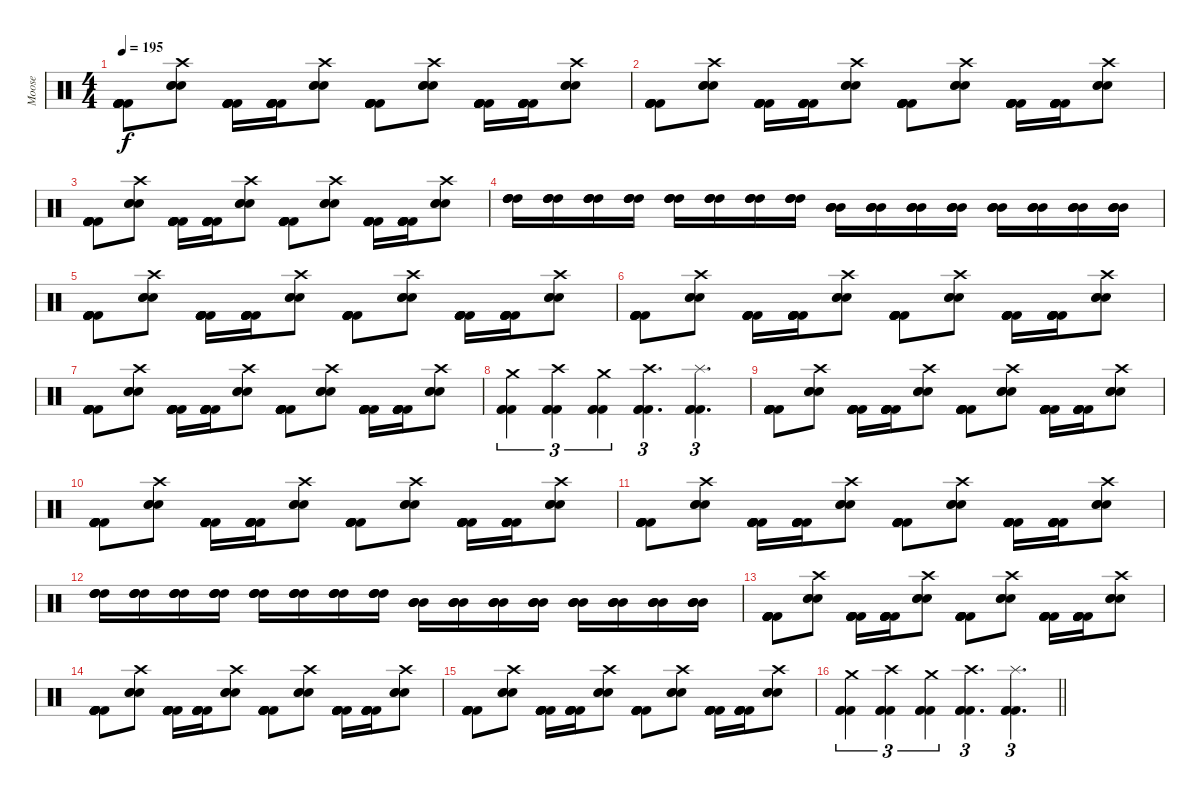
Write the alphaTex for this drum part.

\track ("Moose" "Moose") {instrument percussion}
\staff {score}
\articulation defaults
\ts (4 4)
\tempo 195
\clef neutral
\ks c
("Kick (hit) 2" "Kick (hit) 2" "Kick (hit) 2" "Kick (hit) 2" "Kick (hit) 2" "Kick (hit) 2").8{dy f} ("Electric Snare (hit)" "Electric Snare (hit)" "Electric Snare (hit)" "Crash high (hit)").8 ("Kick (hit) 2" "Kick (hit) 2" "Kick (hit) 2" "Kick (hit) 2" "Kick (hit) 2" "Kick (hit) 2").16 ("Kick (hit) 2" "Kick (hit) 2" "Kick (hit) 2" "Kick (hit) 2" "Kick (hit) 2" "Kick (hit) 2").16 ("Electric Snare (hit)" "Electric Snare (hit)" "Electric Snare (hit)" "Crash high (hit)").8 ("Kick (hit) 2" "Kick (hit) 2" "Kick (hit) 2" "Kick (hit) 2" "Kick (hit) 2" "Kick (hit) 2").8 ("Electric Snare (hit)" "Electric Snare (hit)" "Electric Snare (hit)" "Crash high (hit)").8 ("Kick (hit) 2" "Kick (hit) 2" "Kick (hit) 2" "Kick (hit) 2" "Kick (hit) 2" "Kick (hit) 2").16 ("Kick (hit) 2" "Kick (hit) 2" "Kick (hit) 2" "Kick (hit) 2" "Kick (hit) 2" "Kick (hit) 2").16 ("Electric Snare (hit)" "Electric Snare (hit)" "Electric Snare (hit)" "Crash high (hit)").8 |
("Kick (hit) 2" "Kick (hit) 2" "Kick (hit) 2" "Kick (hit) 2" "Kick (hit) 2" "Kick (hit) 2").8 ("Electric Snare (hit)" "Electric Snare (hit)" "Electric Snare (hit)" "Crash high (hit)").8 ("Kick (hit) 2" "Kick (hit) 2" "Kick (hit) 2" "Kick (hit) 2" "Kick (hit) 2" "Kick (hit) 2").16 ("Kick (hit) 2" "Kick (hit) 2" "Kick (hit) 2" "Kick (hit) 2" "Kick (hit) 2" "Kick (hit) 2").16 ("Electric Snare (hit)" "Electric Snare (hit)" "Electric Snare (hit)" "Crash high (hit)").8 ("Kick (hit) 2" "Kick (hit) 2" "Kick (hit) 2" "Kick (hit) 2" "Kick (hit) 2" "Kick (hit) 2").8 ("Electric Snare (hit)" "Electric Snare (hit)" "Electric Snare (hit)" "Crash high (hit)").8 ("Kick (hit) 2" "Kick (hit) 2" "Kick (hit) 2" "Kick (hit) 2" "Kick (hit) 2" "Kick (hit) 2").16 ("Kick (hit) 2" "Kick (hit) 2" "Kick (hit) 2" "Kick (hit) 2" "Kick (hit) 2" "Kick (hit) 2").16 ("Electric Snare (hit)" "Electric Snare (hit)" "Electric Snare (hit)" "Crash high (hit)").8 |
("Kick (hit) 2" "Kick (hit) 2" "Kick (hit) 2" "Kick (hit) 2" "Kick (hit) 2" "Kick (hit) 2").8 ("Electric Snare (hit)" "Electric Snare (hit)" "Electric Snare (hit)" "Crash high (hit)").8 ("Kick (hit) 2" "Kick (hit) 2" "Kick (hit) 2" "Kick (hit) 2" "Kick (hit) 2" "Kick (hit) 2").16 ("Kick (hit) 2" "Kick (hit) 2" "Kick (hit) 2" "Kick (hit) 2" "Kick (hit) 2" "Kick (hit) 2").16 ("Electric Snare (hit)" "Electric Snare (hit)" "Electric Snare (hit)" "Crash high (hit)").8 ("Kick (hit) 2" "Kick (hit) 2" "Kick (hit) 2" "Kick (hit) 2" "Kick (hit) 2" "Kick (hit) 2").8 ("Electric Snare (hit)" "Electric Snare (hit)" "Electric Snare (hit)" "Crash high (hit)").8 ("Kick (hit) 2" "Kick (hit) 2" "Kick (hit) 2" "Kick (hit) 2" "Kick (hit) 2" "Kick (hit) 2").16 ("Kick (hit) 2" "Kick (hit) 2" "Kick (hit) 2" "Kick (hit) 2" "Kick (hit) 2" "Kick (hit) 2").16 ("Electric Snare (hit)" "Electric Snare (hit)" "Electric Snare (hit)" "Crash high (hit)").8 |
("High Tom (hit)" "High Tom (hit)" "High Tom (hit)" "High Tom (hit)").16 ("High Tom (hit)" "High Tom (hit)" "High Tom (hit)" "High Tom (hit)").16 ("High Tom (hit)" "High Tom (hit)" "High Tom (hit)" "High Tom (hit)").16 ("High Tom (hit)" "High Tom (hit)" "High Tom (hit)" "High Tom (hit)").16 ("High Tom (hit)" "High Tom (hit)" "High Tom (hit)" "High Tom (hit)").16 ("High Tom (hit)" "High Tom (hit)" "High Tom (hit)" "High Tom (hit)").16 ("High Tom (hit)" "High Tom (hit)" "High Tom (hit)" "High Tom (hit)").16 ("High Tom (hit)" "High Tom (hit)" "High Tom (hit)" "High Tom (hit)").16 ("Mid Tom (hit)" "Mid Tom (hit)" "Mid Tom (hit)" "Mid Tom (hit)").16 ("Mid Tom (hit)" "Mid Tom (hit)" "Mid Tom (hit)" "Mid Tom (hit)").16 ("Mid Tom (hit)" "Mid Tom (hit)" "Mid Tom (hit)" "Mid Tom (hit)").16 ("Mid Tom (hit)" "Mid Tom (hit)" "Mid Tom (hit)" "Mid Tom (hit)").16 ("Mid Tom (hit)" "Mid Tom (hit)" "Mid Tom (hit)" "Mid Tom (hit)").16 ("Mid Tom (hit)" "Mid Tom (hit)" "Mid Tom (hit)" "Mid Tom (hit)").16 ("Mid Tom (hit)" "Mid Tom (hit)" "Mid Tom (hit)" "Mid Tom (hit)").16 ("Mid Tom (hit)" "Mid Tom (hit)" "Mid Tom (hit)" "Mid Tom (hit)").16 |
("Kick (hit) 2" "Kick (hit) 2" "Kick (hit) 2" "Kick (hit) 2" "Kick (hit) 2" "Kick (hit) 2").8 ("Electric Snare (hit)" "Electric Snare (hit)" "Electric Snare (hit)" "Crash high (hit)").8 ("Kick (hit) 2" "Kick (hit) 2" "Kick (hit) 2" "Kick (hit) 2" "Kick (hit) 2" "Kick (hit) 2").16 ("Kick (hit) 2" "Kick (hit) 2" "Kick (hit) 2" "Kick (hit) 2" "Kick (hit) 2" "Kick (hit) 2").16 ("Electric Snare (hit)" "Electric Snare (hit)" "Electric Snare (hit)" "Crash high (hit)").8 ("Kick (hit) 2" "Kick (hit) 2" "Kick (hit) 2" "Kick (hit) 2" "Kick (hit) 2" "Kick (hit) 2").8 ("Electric Snare (hit)" "Electric Snare (hit)" "Electric Snare (hit)" "Crash high (hit)").8 ("Kick (hit) 2" "Kick (hit) 2" "Kick (hit) 2" "Kick (hit) 2" "Kick (hit) 2" "Kick (hit) 2").16 ("Kick (hit) 2" "Kick (hit) 2" "Kick (hit) 2" "Kick (hit) 2" "Kick (hit) 2" "Kick (hit) 2").16 ("Electric Snare (hit)" "Electric Snare (hit)" "Electric Snare (hit)" "Crash high (hit)").8 |
("Kick (hit) 2" "Kick (hit) 2" "Kick (hit) 2" "Kick (hit) 2" "Kick (hit) 2" "Kick (hit) 2").8 ("Electric Snare (hit)" "Electric Snare (hit)" "Electric Snare (hit)" "Crash high (hit)").8 ("Kick (hit) 2" "Kick (hit) 2" "Kick (hit) 2" "Kick (hit) 2" "Kick (hit) 2" "Kick (hit) 2").16 ("Kick (hit) 2" "Kick (hit) 2" "Kick (hit) 2" "Kick (hit) 2" "Kick (hit) 2" "Kick (hit) 2").16 ("Electric Snare (hit)" "Electric Snare (hit)" "Electric Snare (hit)" "Crash high (hit)").8 ("Kick (hit) 2" "Kick (hit) 2" "Kick (hit) 2" "Kick (hit) 2" "Kick (hit) 2" "Kick (hit) 2").8 ("Electric Snare (hit)" "Electric Snare (hit)" "Electric Snare (hit)" "Crash high (hit)").8 ("Kick (hit) 2" "Kick (hit) 2" "Kick (hit) 2" "Kick (hit) 2" "Kick (hit) 2" "Kick (hit) 2").16 ("Kick (hit) 2" "Kick (hit) 2" "Kick (hit) 2" "Kick (hit) 2" "Kick (hit) 2" "Kick (hit) 2").16 ("Electric Snare (hit)" "Electric Snare (hit)" "Electric Snare (hit)" "Crash high (hit)").8 |
("Kick (hit) 2" "Kick (hit) 2" "Kick (hit) 2" "Kick (hit) 2" "Kick (hit) 2" "Kick (hit) 2").8 ("Electric Snare (hit)" "Electric Snare (hit)" "Electric Snare (hit)" "Crash high (hit)").8 ("Kick (hit) 2" "Kick (hit) 2" "Kick (hit) 2" "Kick (hit) 2" "Kick (hit) 2" "Kick (hit) 2").16 ("Kick (hit) 2" "Kick (hit) 2" "Kick (hit) 2" "Kick (hit) 2" "Kick (hit) 2" "Kick (hit) 2").16 ("Electric Snare (hit)" "Electric Snare (hit)" "Electric Snare (hit)" "Crash high (hit)").8 ("Kick (hit) 2" "Kick (hit) 2" "Kick (hit) 2" "Kick (hit) 2" "Kick (hit) 2" "Kick (hit) 2").8 ("Electric Snare (hit)" "Electric Snare (hit)" "Electric Snare (hit)" "Crash high (hit)").8 ("Kick (hit) 2" "Kick (hit) 2" "Kick (hit) 2" "Kick (hit) 2" "Kick (hit) 2" "Kick (hit) 2").16 ("Kick (hit) 2" "Kick (hit) 2" "Kick (hit) 2" "Kick (hit) 2" "Kick (hit) 2" "Kick (hit) 2").16 ("Electric Snare (hit)" "Electric Snare (hit)" "Electric Snare (hit)" "Crash high (hit)").8 |
("Kick (hit) 2" "Kick (hit) 2" "Kick (hit) 2" "Crash medium (hit)").4{tu (3 2)} ("Kick (hit) 2" "Kick (hit) 2" "Kick (hit) 2" "Crash high (hit)").4{tu (3 2)} ("Kick (hit) 2" "Kick (hit) 2" "Kick (hit) 2" "Crash medium (hit)").4{tu (3 2)} ("Kick (hit) 2" "Kick (hit) 2" "Kick (hit) 2" "Crash high (hit)").4{d tu (3 2)} ("Kick (hit) 2" "Kick (hit) 2" "Kick (hit) 2" "Splash (hit)").4{d tu (3 2)} |
("Kick (hit) 2" "Kick (hit) 2" "Kick (hit) 2" "Kick (hit) 2" "Kick (hit) 2" "Kick (hit) 2").8 ("Electric Snare (hit)" "Electric Snare (hit)" "Electric Snare (hit)" "Crash high (hit)").8 ("Kick (hit) 2" "Kick (hit) 2" "Kick (hit) 2" "Kick (hit) 2" "Kick (hit) 2" "Kick (hit) 2").16 ("Kick (hit) 2" "Kick (hit) 2" "Kick (hit) 2" "Kick (hit) 2" "Kick (hit) 2" "Kick (hit) 2").16 ("Electric Snare (hit)" "Electric Snare (hit)" "Electric Snare (hit)" "Crash high (hit)").8 ("Kick (hit) 2" "Kick (hit) 2" "Kick (hit) 2" "Kick (hit) 2" "Kick (hit) 2" "Kick (hit) 2").8 ("Electric Snare (hit)" "Electric Snare (hit)" "Electric Snare (hit)" "Crash high (hit)").8 ("Kick (hit) 2" "Kick (hit) 2" "Kick (hit) 2" "Kick (hit) 2" "Kick (hit) 2" "Kick (hit) 2").16 ("Kick (hit) 2" "Kick (hit) 2" "Kick (hit) 2" "Kick (hit) 2" "Kick (hit) 2" "Kick (hit) 2").16 ("Electric Snare (hit)" "Electric Snare (hit)" "Electric Snare (hit)" "Crash high (hit)").8 |
("Kick (hit) 2" "Kick (hit) 2" "Kick (hit) 2" "Kick (hit) 2" "Kick (hit) 2" "Kick (hit) 2").8 ("Electric Snare (hit)" "Electric Snare (hit)" "Electric Snare (hit)" "Crash high (hit)").8 ("Kick (hit) 2" "Kick (hit) 2" "Kick (hit) 2" "Kick (hit) 2" "Kick (hit) 2" "Kick (hit) 2").16 ("Kick (hit) 2" "Kick (hit) 2" "Kick (hit) 2" "Kick (hit) 2" "Kick (hit) 2" "Kick (hit) 2").16 ("Electric Snare (hit)" "Electric Snare (hit)" "Electric Snare (hit)" "Crash high (hit)").8 ("Kick (hit) 2" "Kick (hit) 2" "Kick (hit) 2" "Kick (hit) 2" "Kick (hit) 2" "Kick (hit) 2").8 ("Electric Snare (hit)" "Electric Snare (hit)" "Electric Snare (hit)" "Crash high (hit)").8 ("Kick (hit) 2" "Kick (hit) 2" "Kick (hit) 2" "Kick (hit) 2" "Kick (hit) 2" "Kick (hit) 2").16 ("Kick (hit) 2" "Kick (hit) 2" "Kick (hit) 2" "Kick (hit) 2" "Kick (hit) 2" "Kick (hit) 2").16 ("Electric Snare (hit)" "Electric Snare (hit)" "Electric Snare (hit)" "Crash high (hit)").8 |
("Kick (hit) 2" "Kick (hit) 2" "Kick (hit) 2" "Kick (hit) 2" "Kick (hit) 2" "Kick (hit) 2").8 ("Electric Snare (hit)" "Electric Snare (hit)" "Electric Snare (hit)" "Crash high (hit)").8 ("Kick (hit) 2" "Kick (hit) 2" "Kick (hit) 2" "Kick (hit) 2" "Kick (hit) 2" "Kick (hit) 2").16 ("Kick (hit) 2" "Kick (hit) 2" "Kick (hit) 2" "Kick (hit) 2" "Kick (hit) 2" "Kick (hit) 2").16 ("Electric Snare (hit)" "Electric Snare (hit)" "Electric Snare (hit)" "Crash high (hit)").8 ("Kick (hit) 2" "Kick (hit) 2" "Kick (hit) 2" "Kick (hit) 2" "Kick (hit) 2" "Kick (hit) 2").8 ("Electric Snare (hit)" "Electric Snare (hit)" "Electric Snare (hit)" "Crash high (hit)").8 ("Kick (hit) 2" "Kick (hit) 2" "Kick (hit) 2" "Kick (hit) 2" "Kick (hit) 2" "Kick (hit) 2").16 ("Kick (hit) 2" "Kick (hit) 2" "Kick (hit) 2" "Kick (hit) 2" "Kick (hit) 2" "Kick (hit) 2").16 ("Electric Snare (hit)" "Electric Snare (hit)" "Electric Snare (hit)" "Crash high (hit)").8 |
("High Tom (hit)" "High Tom (hit)" "High Tom (hit)" "High Tom (hit)").16 ("High Tom (hit)" "High Tom (hit)" "High Tom (hit)" "High Tom (hit)").16 ("High Tom (hit)" "High Tom (hit)" "High Tom (hit)" "High Tom (hit)").16 ("High Tom (hit)" "High Tom (hit)" "High Tom (hit)" "High Tom (hit)").16 ("High Tom (hit)" "High Tom (hit)" "High Tom (hit)" "High Tom (hit)").16 ("High Tom (hit)" "High Tom (hit)" "High Tom (hit)" "High Tom (hit)").16 ("High Tom (hit)" "High Tom (hit)" "High Tom (hit)" "High Tom (hit)").16 ("High Tom (hit)" "High Tom (hit)" "High Tom (hit)" "High Tom (hit)").16 ("Mid Tom (hit)" "Mid Tom (hit)" "Mid Tom (hit)" "Mid Tom (hit)").16 ("Mid Tom (hit)" "Mid Tom (hit)" "Mid Tom (hit)" "Mid Tom (hit)").16 ("Mid Tom (hit)" "Mid Tom (hit)" "Mid Tom (hit)" "Mid Tom (hit)").16 ("Mid Tom (hit)" "Mid Tom (hit)" "Mid Tom (hit)" "Mid Tom (hit)").16 ("Mid Tom (hit)" "Mid Tom (hit)" "Mid Tom (hit)" "Mid Tom (hit)").16 ("Mid Tom (hit)" "Mid Tom (hit)" "Mid Tom (hit)" "Mid Tom (hit)").16 ("Mid Tom (hit)" "Mid Tom (hit)" "Mid Tom (hit)" "Mid Tom (hit)").16 ("Mid Tom (hit)" "Mid Tom (hit)" "Mid Tom (hit)" "Mid Tom (hit)").16 |
("Kick (hit) 2" "Kick (hit) 2" "Kick (hit) 2" "Kick (hit) 2" "Kick (hit) 2" "Kick (hit) 2").8 ("Electric Snare (hit)" "Electric Snare (hit)" "Electric Snare (hit)" "Crash high (hit)").8 ("Kick (hit) 2" "Kick (hit) 2" "Kick (hit) 2" "Kick (hit) 2" "Kick (hit) 2" "Kick (hit) 2").16 ("Kick (hit) 2" "Kick (hit) 2" "Kick (hit) 2" "Kick (hit) 2" "Kick (hit) 2" "Kick (hit) 2").16 ("Electric Snare (hit)" "Electric Snare (hit)" "Electric Snare (hit)" "Crash high (hit)").8 ("Kick (hit) 2" "Kick (hit) 2" "Kick (hit) 2" "Kick (hit) 2" "Kick (hit) 2" "Kick (hit) 2").8 ("Electric Snare (hit)" "Electric Snare (hit)" "Electric Snare (hit)" "Crash high (hit)").8 ("Kick (hit) 2" "Kick (hit) 2" "Kick (hit) 2" "Kick (hit) 2" "Kick (hit) 2" "Kick (hit) 2").16 ("Kick (hit) 2" "Kick (hit) 2" "Kick (hit) 2" "Kick (hit) 2" "Kick (hit) 2" "Kick (hit) 2").16 ("Electric Snare (hit)" "Electric Snare (hit)" "Electric Snare (hit)" "Crash high (hit)").8 |
("Kick (hit) 2" "Kick (hit) 2" "Kick (hit) 2" "Kick (hit) 2" "Kick (hit) 2" "Kick (hit) 2").8 ("Electric Snare (hit)" "Electric Snare (hit)" "Electric Snare (hit)" "Crash high (hit)").8 ("Kick (hit) 2" "Kick (hit) 2" "Kick (hit) 2" "Kick (hit) 2" "Kick (hit) 2" "Kick (hit) 2").16 ("Kick (hit) 2" "Kick (hit) 2" "Kick (hit) 2" "Kick (hit) 2" "Kick (hit) 2" "Kick (hit) 2").16 ("Electric Snare (hit)" "Electric Snare (hit)" "Electric Snare (hit)" "Crash high (hit)").8 ("Kick (hit) 2" "Kick (hit) 2" "Kick (hit) 2" "Kick (hit) 2" "Kick (hit) 2" "Kick (hit) 2").8 ("Electric Snare (hit)" "Electric Snare (hit)" "Electric Snare (hit)" "Crash high (hit)").8 ("Kick (hit) 2" "Kick (hit) 2" "Kick (hit) 2" "Kick (hit) 2" "Kick (hit) 2" "Kick (hit) 2").16 ("Kick (hit) 2" "Kick (hit) 2" "Kick (hit) 2" "Kick (hit) 2" "Kick (hit) 2" "Kick (hit) 2").16 ("Electric Snare (hit)" "Electric Snare (hit)" "Electric Snare (hit)" "Crash high (hit)").8 |
("Kick (hit) 2" "Kick (hit) 2" "Kick (hit) 2" "Kick (hit) 2" "Kick (hit) 2" "Kick (hit) 2").8 ("Electric Snare (hit)" "Electric Snare (hit)" "Electric Snare (hit)" "Crash high (hit)").8 ("Kick (hit) 2" "Kick (hit) 2" "Kick (hit) 2" "Kick (hit) 2" "Kick (hit) 2" "Kick (hit) 2").16 ("Kick (hit) 2" "Kick (hit) 2" "Kick (hit) 2" "Kick (hit) 2" "Kick (hit) 2" "Kick (hit) 2").16 ("Electric Snare (hit)" "Electric Snare (hit)" "Electric Snare (hit)" "Crash high (hit)").8 ("Kick (hit) 2" "Kick (hit) 2" "Kick (hit) 2" "Kick (hit) 2" "Kick (hit) 2" "Kick (hit) 2").8 ("Electric Snare (hit)" "Electric Snare (hit)" "Electric Snare (hit)" "Crash high (hit)").8 ("Kick (hit) 2" "Kick (hit) 2" "Kick (hit) 2" "Kick (hit) 2" "Kick (hit) 2" "Kick (hit) 2").16 ("Kick (hit) 2" "Kick (hit) 2" "Kick (hit) 2" "Kick (hit) 2" "Kick (hit) 2" "Kick (hit) 2").16 ("Electric Snare (hit)" "Electric Snare (hit)" "Electric Snare (hit)" "Crash high (hit)").8 |
\barLineRight lightlight
("Kick (hit) 2" "Kick (hit) 2" "Kick (hit) 2" "Crash medium (hit)").4{tu (3 2)} ("Kick (hit) 2" "Kick (hit) 2" "Kick (hit) 2" "Crash high (hit)").4{tu (3 2)} ("Kick (hit) 2" "Kick (hit) 2" "Kick (hit) 2" "Crash medium (hit)").4{tu (3 2)} ("Kick (hit) 2" "Kick (hit) 2" "Kick (hit) 2" "Crash high (hit)").4{d tu (3 2)} ("Kick (hit) 2" "Kick (hit) 2" "Kick (hit) 2" "Splash (hit)").4{d tu (3 2)}
